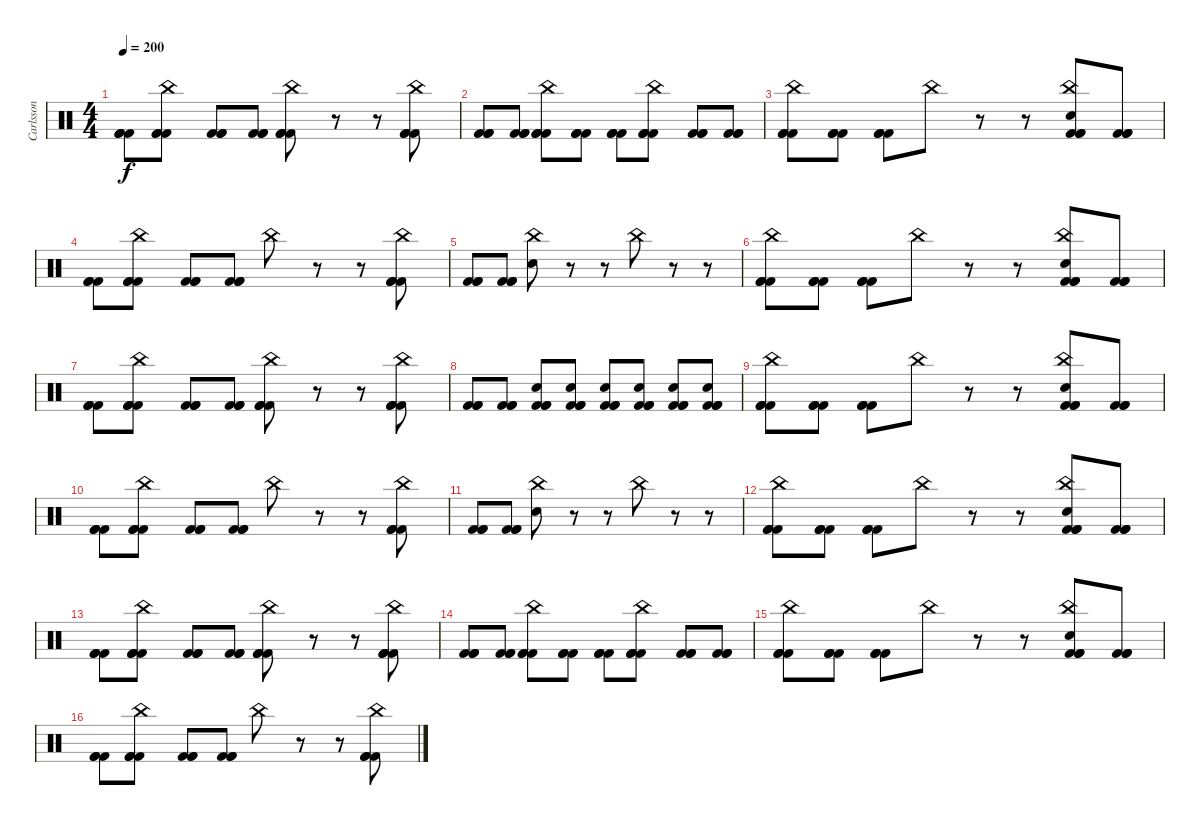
\track ("Carlsson" "Carlsson") {instrument percussion}
\staff {score}
\articulation defaults
\ts (4 4)
\tempo 200
\clef neutral
\ks c
("Kick (hit) 2" "Kick (hit) 2" "Kick (hit) 2").8{dy f} ("China (hit)" "Kick (hit) 2" "Kick (hit) 2" "Kick (hit) 2").8 ("Kick (hit) 2" "Kick (hit) 2" "Kick (hit) 2").8 ("Kick (hit) 2" "Kick (hit) 2" "Kick (hit) 2").8 ("China (hit)" "Kick (hit) 2" "Kick (hit) 2" "Kick (hit) 2").8 r.8 r.8 ("China (hit)" "Kick (hit) 2" "Kick (hit) 2" "Kick (hit) 2").8 |
("Kick (hit) 2" "Kick (hit) 2" "Kick (hit) 2").8 ("Kick (hit) 2" "Kick (hit) 2" "Kick (hit) 2").8 ("China (hit)" "Kick (hit) 2" "Kick (hit) 2" "Kick (hit) 2").8 ("Kick (hit) 2" "Kick (hit) 2" "Kick (hit) 2").8 ("Kick (hit) 2" "Kick (hit) 2" "Kick (hit) 2").8 ("China (hit)" "Kick (hit) 2" "Kick (hit) 2" "Kick (hit) 2").8 ("Kick (hit) 2" "Kick (hit) 2" "Kick (hit) 2").8 ("Kick (hit) 2" "Kick (hit) 2" "Kick (hit) 2").8 |
("China (hit)" "Kick (hit) 2" "Kick (hit) 2" "Kick (hit) 2").8 ("Kick (hit) 2" "Kick (hit) 2" "Kick (hit) 2").8 ("Kick (hit) 2" "Kick (hit) 2" "Kick (hit) 2").8 "China (hit)".8 r.8 r.8 ("China (hit)" "Snare (hit) 2" "Kick (hit) 2" "Kick (hit) 2" "Kick (hit) 2").8 ("Kick (hit) 2" "Kick (hit) 2" "Kick (hit) 2").8 |
("Kick (hit) 2" "Kick (hit) 2" "Kick (hit) 2").8 ("China (hit)" "Kick (hit) 2" "Kick (hit) 2" "Kick (hit) 2").8 ("Kick (hit) 2" "Kick (hit) 2" "Kick (hit) 2").8 ("Kick (hit) 2" "Kick (hit) 2" "Kick (hit) 2").8 "China (hit)".8 r.8 r.8 ("China (hit)" "Kick (hit) 2" "Kick (hit) 2" "Kick (hit) 2").8 |
("Kick (hit) 2" "Kick (hit) 2" "Kick (hit) 2").8 ("Kick (hit) 2" "Kick (hit) 2" "Kick (hit) 2").8 ("China (hit)" "Snare (hit) 2").8 r.8 r.8 "China (hit)".8 r.8 r.8 |
("China (hit)" "Kick (hit) 2" "Kick (hit) 2" "Kick (hit) 2").8 ("Kick (hit) 2" "Kick (hit) 2" "Kick (hit) 2").8 ("Kick (hit) 2" "Kick (hit) 2" "Kick (hit) 2").8 "China (hit)".8 r.8 r.8 ("China (hit)" "Snare (hit) 2" "Kick (hit) 2" "Kick (hit) 2" "Kick (hit) 2").8 ("Kick (hit) 2" "Kick (hit) 2" "Kick (hit) 2").8 |
("Kick (hit) 2" "Kick (hit) 2" "Kick (hit) 2").8 ("China (hit)" "Kick (hit) 2" "Kick (hit) 2" "Kick (hit) 2").8 ("Kick (hit) 2" "Kick (hit) 2" "Kick (hit) 2").8 ("Kick (hit) 2" "Kick (hit) 2" "Kick (hit) 2").8 ("China (hit)" "Kick (hit) 2" "Kick (hit) 2" "Kick (hit) 2").8 r.8 r.8 ("China (hit)" "Kick (hit) 2" "Kick (hit) 2" "Kick (hit) 2").8 |
("Kick (hit) 2" "Kick (hit) 2" "Kick (hit) 2").8 ("Kick (hit) 2" "Kick (hit) 2" "Kick (hit) 2").8 ("Snare (hit) 2" "Kick (hit) 2" "Kick (hit) 2" "Kick (hit) 2").8 ("Snare (hit) 2" "Kick (hit) 2" "Kick (hit) 2" "Kick (hit) 2").8 ("Snare (hit) 2" "Kick (hit) 2" "Kick (hit) 2" "Kick (hit) 2").8 ("Snare (hit) 2" "Kick (hit) 2" "Kick (hit) 2" "Kick (hit) 2").8 ("Snare (hit) 2" "Kick (hit) 2" "Kick (hit) 2" "Kick (hit) 2").8 ("Snare (hit) 2" "Kick (hit) 2" "Kick (hit) 2" "Kick (hit) 2").8 |
("China (hit)" "Kick (hit) 2" "Kick (hit) 2" "Kick (hit) 2").8 ("Kick (hit) 2" "Kick (hit) 2" "Kick (hit) 2").8 ("Kick (hit) 2" "Kick (hit) 2" "Kick (hit) 2").8 "China (hit)".8 r.8 r.8 ("China (hit)" "Snare (hit) 2" "Kick (hit) 2" "Kick (hit) 2" "Kick (hit) 2").8 ("Kick (hit) 2" "Kick (hit) 2" "Kick (hit) 2").8 |
("Kick (hit) 2" "Kick (hit) 2" "Kick (hit) 2").8 ("China (hit)" "Kick (hit) 2" "Kick (hit) 2" "Kick (hit) 2").8 ("Kick (hit) 2" "Kick (hit) 2" "Kick (hit) 2").8 ("Kick (hit) 2" "Kick (hit) 2" "Kick (hit) 2").8 "China (hit)".8 r.8 r.8 ("China (hit)" "Kick (hit) 2" "Kick (hit) 2" "Kick (hit) 2").8 |
("Kick (hit) 2" "Kick (hit) 2" "Kick (hit) 2").8 ("Kick (hit) 2" "Kick (hit) 2" "Kick (hit) 2").8 ("China (hit)" "Snare (hit) 2").8 r.8 r.8 "China (hit)".8 r.8 r.8 |
("China (hit)" "Kick (hit) 2" "Kick (hit) 2" "Kick (hit) 2").8 ("Kick (hit) 2" "Kick (hit) 2" "Kick (hit) 2").8 ("Kick (hit) 2" "Kick (hit) 2" "Kick (hit) 2").8 "China (hit)".8 r.8 r.8 ("China (hit)" "Snare (hit) 2" "Kick (hit) 2" "Kick (hit) 2" "Kick (hit) 2").8 ("Kick (hit) 2" "Kick (hit) 2" "Kick (hit) 2").8 |
("Kick (hit) 2" "Kick (hit) 2" "Kick (hit) 2").8 ("China (hit)" "Kick (hit) 2" "Kick (hit) 2" "Kick (hit) 2").8 ("Kick (hit) 2" "Kick (hit) 2" "Kick (hit) 2").8 ("Kick (hit) 2" "Kick (hit) 2" "Kick (hit) 2").8 ("China (hit)" "Kick (hit) 2" "Kick (hit) 2" "Kick (hit) 2").8 r.8 r.8 ("China (hit)" "Kick (hit) 2" "Kick (hit) 2" "Kick (hit) 2").8 |
("Kick (hit) 2" "Kick (hit) 2" "Kick (hit) 2").8 ("Kick (hit) 2" "Kick (hit) 2" "Kick (hit) 2").8 ("China (hit)" "Kick (hit) 2" "Kick (hit) 2" "Kick (hit) 2").8 ("Kick (hit) 2" "Kick (hit) 2" "Kick (hit) 2").8 ("Kick (hit) 2" "Kick (hit) 2" "Kick (hit) 2").8 ("China (hit)" "Kick (hit) 2" "Kick (hit) 2" "Kick (hit) 2").8 ("Kick (hit) 2" "Kick (hit) 2" "Kick (hit) 2").8 ("Kick (hit) 2" "Kick (hit) 2" "Kick (hit) 2").8 |
("China (hit)" "Kick (hit) 2" "Kick (hit) 2" "Kick (hit) 2").8 ("Kick (hit) 2" "Kick (hit) 2" "Kick (hit) 2").8 ("Kick (hit) 2" "Kick (hit) 2" "Kick (hit) 2").8 "China (hit)".8 r.8 r.8 ("China (hit)" "Snare (hit) 2" "Kick (hit) 2" "Kick (hit) 2" "Kick (hit) 2").8 ("Kick (hit) 2" "Kick (hit) 2" "Kick (hit) 2").8 |
("Kick (hit) 2" "Kick (hit) 2" "Kick (hit) 2").8 ("China (hit)" "Kick (hit) 2" "Kick (hit) 2" "Kick (hit) 2").8 ("Kick (hit) 2" "Kick (hit) 2" "Kick (hit) 2").8 ("Kick (hit) 2" "Kick (hit) 2" "Kick (hit) 2").8 "China (hit)".8 r.8 r.8 ("China (hit)" "Kick (hit) 2" "Kick (hit) 2" "Kick (hit) 2").8
